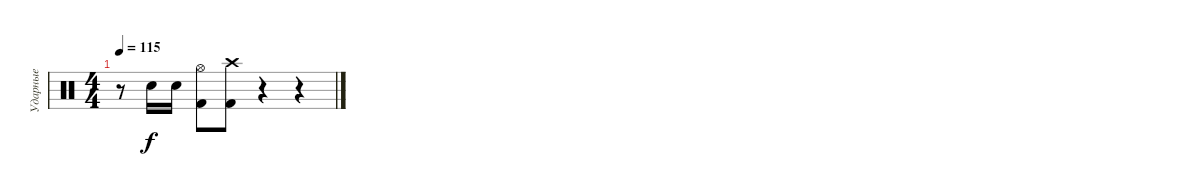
\track ("Ударные" "Ударные") {instrument percussion}
\staff {score}
\articulation defaults
\ts (4 4)
\tempo 115
\clef neutral
\ks c
r.8{dy f} "Electric Snare (hit)".16 "Electric Snare (hit)".16 ("Kick (hit) 2" "Hi-Hat (open)").8 ("Crash high (hit)" "Kick (hit) 2").8 r.4 r.4
